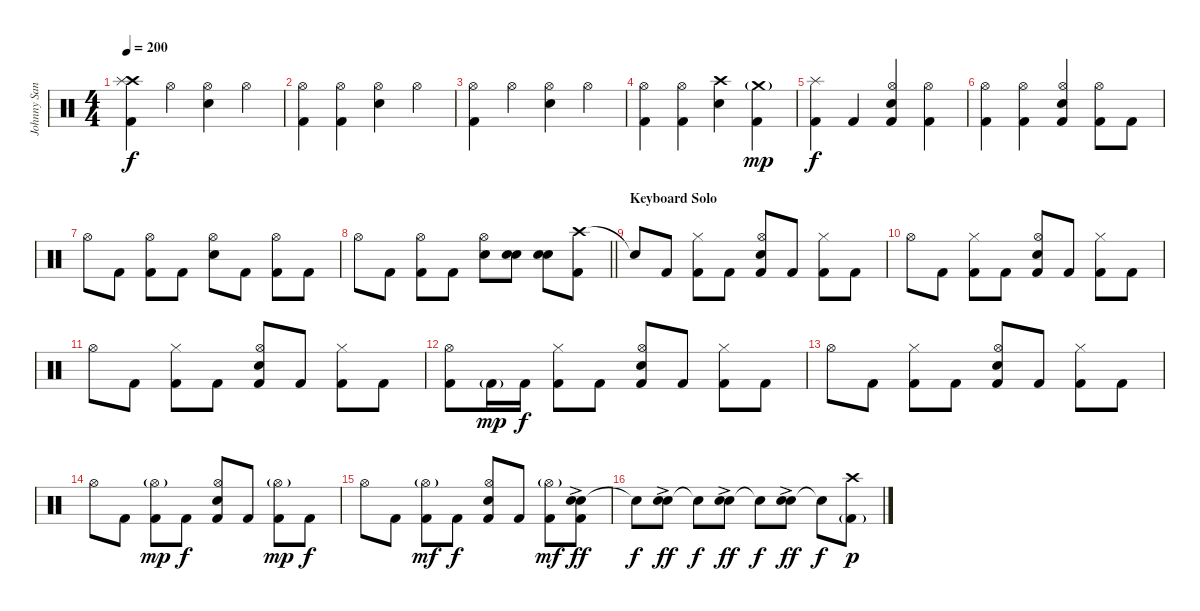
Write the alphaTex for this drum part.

\track ("Johnny Sandin" "Johnny San") {instrument percussion}
\staff {score}
\articulation defaults
\ts (4 4)
\tempo 200
\clef neutral
\ks c
("Crash high (hit)" "Splash (hit)" "Kick (hit) 2").4{dy f} "Hi-Hat (open)".4 ("Hi-Hat (open)" "Snare (hit) 2").4 "Hi-Hat (open)".4 |
("Hi-Hat (open)" "Kick (hit) 2").4 ("Hi-Hat (open)" "Kick (hit) 2").4 ("Hi-Hat (open)" "Snare (hit) 2").4 "Hi-Hat (open)".4 |
("Hi-Hat (open)" "Kick (hit) 2").4 "Hi-Hat (open)".4 ("Hi-Hat (open)" "Snare (hit) 2").4 "Hi-Hat (open)".4 |
("Hi-Hat (open)" "Kick (hit) 2").4 ("Hi-Hat (open)" "Kick (hit) 2").4 ("Crash high (hit)" "Snare (hit) 2").4 ("Crash medium (hit)"{g} "Kick (hit) 2").4{dy mp} |
("Splash (hit)" "Kick (hit) 2").4{dy f} "Kick (hit) 2".4 ("Hi-Hat (open)" "Snare (hit) 2" "Kick (hit) 2").4 ("Hi-Hat (open)" "Kick (hit) 2").4 |
("Hi-Hat (open)" "Kick (hit) 2").4 ("Hi-Hat (open)" "Kick (hit) 2").4 ("Hi-Hat (open)" "Snare (hit) 2" "Kick (hit) 2").4 ("Hi-Hat (open)" "Kick (hit) 2").8 "Kick (hit) 2".8 |
"Hi-Hat (open)".8 "Kick (hit) 2".8 ("Hi-Hat (open)" "Kick (hit) 2").8 "Kick (hit) 2".8 ("Hi-Hat (open)" "Snare (hit) 2").8 "Kick (hit) 2".8 ("Hi-Hat (open)" "Kick (hit) 2").8 "Kick (hit) 2".8 |
\barLineRight lightlight "Hi-Hat (open)".8 "Kick (hit) 2".8
("Hi-Hat (open)" "Kick (hit) 2").8 "Kick (hit) 2".8 ("Hi-Hat (open)" "Snare (hit) 2").8 ("Snare (hit) 2" "Snare (hit) 2").8 ("Snare (hit) 2" "Snare (hit) 2").8 ("Crash high (hit)" "Kick (hit) 2").8 |
\section ("" "Keyboard Solo")
"Snare (hit)"{t}.8 "Kick (hit) 2".8 ("Hi-Hat (closed)" "Kick (hit) 2").8 "Kick (hit) 2".8 ("Hi-Hat (open)" "Snare (hit) 2" "Kick (hit) 2").8 "Kick (hit) 2".8 ("Hi-Hat (closed)" "Kick (hit) 2").8 "Kick (hit) 2".8 |
"Hi-Hat (open)".8 "Kick (hit) 2".8 ("Hi-Hat (closed)" "Kick (hit) 2").8 "Kick (hit) 2".8 ("Hi-Hat (open)" "Snare (hit) 2" "Kick (hit) 2").8 "Kick (hit) 2".8 ("Hi-Hat (closed)" "Kick (hit) 2").8 "Kick (hit) 2".8 |
"Hi-Hat (open)".8 "Kick (hit) 2".8 ("Hi-Hat (closed)" "Kick (hit) 2").8 "Kick (hit) 2".8 ("Hi-Hat (open)" "Snare (hit) 2" "Kick (hit) 2").8 "Kick (hit) 2".8 ("Hi-Hat (closed)" "Kick (hit) 2").8 "Kick (hit) 2".8 |
("Hi-Hat (open)" "Kick (hit) 2").8 "Kick (hit) 2"{g}.16{dy mp} "Kick (hit) 2".16{dy f} ("Hi-Hat (closed)" "Kick (hit) 2").8 "Kick (hit) 2".8 ("Hi-Hat (open)" "Snare (hit) 2" "Kick (hit) 2").8 "Kick (hit) 2".8 ("Hi-Hat (closed)" "Kick (hit) 2").8 "Kick (hit) 2".8 |
"Hi-Hat (open)".8 "Kick (hit) 2".8 ("Hi-Hat (closed)" "Kick (hit) 2").8 "Kick (hit) 2".8 ("Hi-Hat (open)" "Snare (hit) 2" "Kick (hit) 2").8 "Kick (hit) 2".8 ("Hi-Hat (closed)" "Kick (hit) 2").8 "Kick (hit) 2".8 |
"Hi-Hat (open)".8 "Kick (hit) 2".8 ("Hi-Hat (open)"{g} "Kick (hit) 2").8{dy mp} "Kick (hit) 2".8{dy f} ("Hi-Hat (open)" "Snare (hit) 2" "Kick (hit) 2").8 "Kick (hit) 2".8 ("Hi-Hat (open)"{g} "Kick (hit) 2").8{dy mp} "Kick (hit) 2".8{dy f} |
"Hi-Hat (open)".8 "Kick (hit) 2".8 ("Hi-Hat (open)"{g} "Kick (hit) 2").8{dy mf} "Kick (hit) 2".8{dy f} ("Hi-Hat (open)" "Snare (hit) 2" "Kick (hit) 2").8 "Kick (hit) 2".8 ("Hi-Hat (open)"{g} "Kick (hit) 2").8{dy mf} ("Snare (hit) 2"{ac} "Snare (hit) 2"{ac} "Kick (hit) 2").8{dy ff} |
"Snare (hit)"{t}.8{dy f} ("Snare (hit) 2"{ac} "Snare (hit) 2"{ac}).8{dy ff} "Snare (hit)"{t}.8{dy f} ("Snare (hit) 2"{ac} "Snare (hit) 2"{ac}).8{dy ff} "Snare (hit)"{t}.8{dy f} ("Snare (hit) 2"{ac} "Snare (hit) 2"{ac}).8{dy ff} "Snare (hit)"{t}.8{dy f} ("Crash high (hit)" "Kick (hit) 2"{g}).8{dy p}
